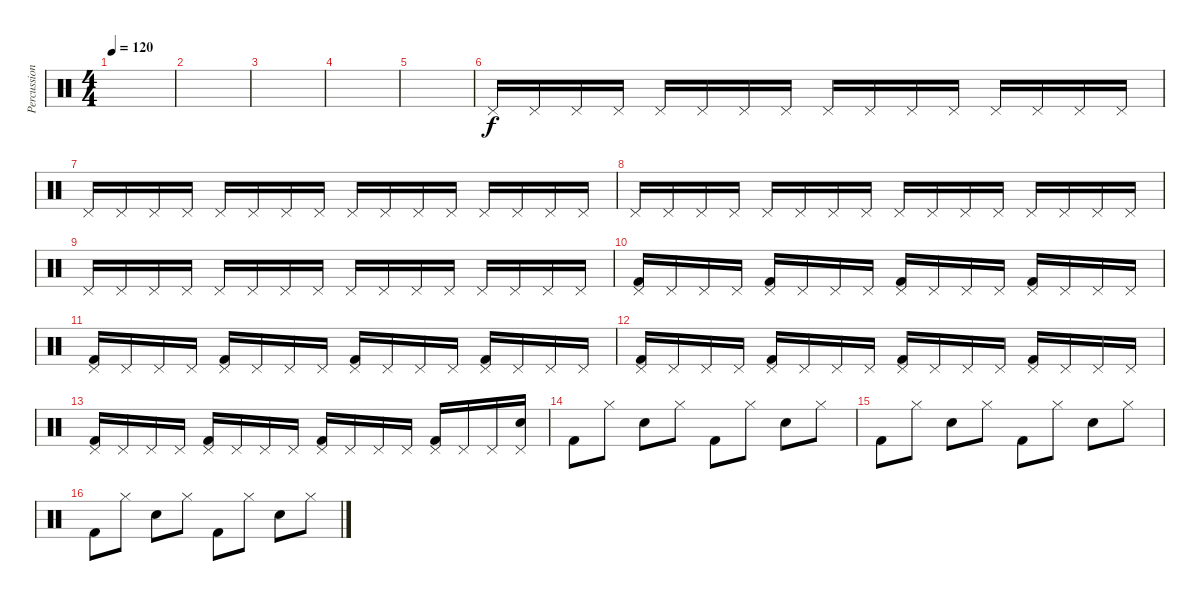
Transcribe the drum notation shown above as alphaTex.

\track ("Percussions" "Percussion") {instrument percussion}
\staff {score}
\articulation defaults
\ts (4 4)
\tempo 120
\clef neutral
\ks c
|
|
|
|
|
"Pedal Hi-Hat (hit)".16 "Pedal Hi-Hat (hit)".16 "Pedal Hi-Hat (hit)".16 "Pedal Hi-Hat (hit)".16 "Pedal Hi-Hat (hit)".16 "Pedal Hi-Hat (hit)".16 "Pedal Hi-Hat (hit)".16 "Pedal Hi-Hat (hit)".16 "Pedal Hi-Hat (hit)".16 "Pedal Hi-Hat (hit)".16 "Pedal Hi-Hat (hit)".16 "Pedal Hi-Hat (hit)".16 "Pedal Hi-Hat (hit)".16 "Pedal Hi-Hat (hit)".16 "Pedal Hi-Hat (hit)".16 "Pedal Hi-Hat (hit)".16 |
"Pedal Hi-Hat (hit)".16 "Pedal Hi-Hat (hit)".16 "Pedal Hi-Hat (hit)".16 "Pedal Hi-Hat (hit)".16 "Pedal Hi-Hat (hit)".16 "Pedal Hi-Hat (hit)".16 "Pedal Hi-Hat (hit)".16 "Pedal Hi-Hat (hit)".16 "Pedal Hi-Hat (hit)".16 "Pedal Hi-Hat (hit)".16 "Pedal Hi-Hat (hit)".16 "Pedal Hi-Hat (hit)".16 "Pedal Hi-Hat (hit)".16 "Pedal Hi-Hat (hit)".16 "Pedal Hi-Hat (hit)".16 "Pedal Hi-Hat (hit)".16 |
"Pedal Hi-Hat (hit)".16 "Pedal Hi-Hat (hit)".16 "Pedal Hi-Hat (hit)".16 "Pedal Hi-Hat (hit)".16 "Pedal Hi-Hat (hit)".16 "Pedal Hi-Hat (hit)".16 "Pedal Hi-Hat (hit)".16 "Pedal Hi-Hat (hit)".16 "Pedal Hi-Hat (hit)".16 "Pedal Hi-Hat (hit)".16 "Pedal Hi-Hat (hit)".16 "Pedal Hi-Hat (hit)".16 "Pedal Hi-Hat (hit)".16 "Pedal Hi-Hat (hit)".16 "Pedal Hi-Hat (hit)".16 "Pedal Hi-Hat (hit)".16 |
"Pedal Hi-Hat (hit)".16 "Pedal Hi-Hat (hit)".16 "Pedal Hi-Hat (hit)".16 "Pedal Hi-Hat (hit)".16 "Pedal Hi-Hat (hit)".16 "Pedal Hi-Hat (hit)".16 "Pedal Hi-Hat (hit)".16 "Pedal Hi-Hat (hit)".16 "Pedal Hi-Hat (hit)".16 "Pedal Hi-Hat (hit)".16 "Pedal Hi-Hat (hit)".16 "Pedal Hi-Hat (hit)".16 "Pedal Hi-Hat (hit)".16 "Pedal Hi-Hat (hit)".16 "Pedal Hi-Hat (hit)".16 "Pedal Hi-Hat (hit)".16 |
("Pedal Hi-Hat (hit)" "Kick (hit) 2").16 "Pedal Hi-Hat (hit)".16 "Pedal Hi-Hat (hit)".16 "Pedal Hi-Hat (hit)".16 ("Pedal Hi-Hat (hit)" "Kick (hit) 2").16 "Pedal Hi-Hat (hit)".16 "Pedal Hi-Hat (hit)".16 "Pedal Hi-Hat (hit)".16 ("Pedal Hi-Hat (hit)" "Kick (hit) 2").16 "Pedal Hi-Hat (hit)".16 "Pedal Hi-Hat (hit)".16 "Pedal Hi-Hat (hit)".16 ("Pedal Hi-Hat (hit)" "Kick (hit) 2").16 "Pedal Hi-Hat (hit)".16 "Pedal Hi-Hat (hit)".16 "Pedal Hi-Hat (hit)".16 |
("Pedal Hi-Hat (hit)" "Kick (hit) 2").16 "Pedal Hi-Hat (hit)".16 "Pedal Hi-Hat (hit)".16 "Pedal Hi-Hat (hit)".16 ("Pedal Hi-Hat (hit)" "Kick (hit) 2").16 "Pedal Hi-Hat (hit)".16 "Pedal Hi-Hat (hit)".16 "Pedal Hi-Hat (hit)".16 ("Pedal Hi-Hat (hit)" "Kick (hit) 2").16 "Pedal Hi-Hat (hit)".16 "Pedal Hi-Hat (hit)".16 "Pedal Hi-Hat (hit)".16 ("Pedal Hi-Hat (hit)" "Kick (hit) 2").16 "Pedal Hi-Hat (hit)".16 "Pedal Hi-Hat (hit)".16 "Pedal Hi-Hat (hit)".16 |
("Pedal Hi-Hat (hit)" "Kick (hit) 2").16 "Pedal Hi-Hat (hit)".16 "Pedal Hi-Hat (hit)".16 "Pedal Hi-Hat (hit)".16 ("Pedal Hi-Hat (hit)" "Kick (hit) 2").16 "Pedal Hi-Hat (hit)".16 "Pedal Hi-Hat (hit)".16 "Pedal Hi-Hat (hit)".16 ("Pedal Hi-Hat (hit)" "Kick (hit) 2").16 "Pedal Hi-Hat (hit)".16 "Pedal Hi-Hat (hit)".16 "Pedal Hi-Hat (hit)".16 ("Pedal Hi-Hat (hit)" "Kick (hit) 2").16 "Pedal Hi-Hat (hit)".16 "Pedal Hi-Hat (hit)".16 "Pedal Hi-Hat (hit)".16 |
("Pedal Hi-Hat (hit)" "Kick (hit) 2").16 "Pedal Hi-Hat (hit)".16 "Pedal Hi-Hat (hit)".16 "Pedal Hi-Hat (hit)".16 ("Pedal Hi-Hat (hit)" "Kick (hit) 2").16 "Pedal Hi-Hat (hit)".16 "Pedal Hi-Hat (hit)".16 "Pedal Hi-Hat (hit)".16 ("Pedal Hi-Hat (hit)" "Kick (hit) 2").16 "Pedal Hi-Hat (hit)".16 "Pedal Hi-Hat (hit)".16 "Pedal Hi-Hat (hit)".16 ("Pedal Hi-Hat (hit)" "Kick (hit) 2").16 "Pedal Hi-Hat (hit)".16 "Pedal Hi-Hat (hit)".16 ("Pedal Hi-Hat (hit)" "Snare (hit) 2").16 |
"Kick (hit) 2".8 "Hi-Hat (closed)".8 "Snare (hit) 2".8 "Hi-Hat (closed)".8 "Kick (hit) 2".8 "Hi-Hat (closed)".8 "Snare (hit) 2".8 "Hi-Hat (closed)".8 |
"Kick (hit) 2".8 "Hi-Hat (closed)".8 "Snare (hit) 2".8 "Hi-Hat (closed)".8 "Kick (hit) 2".8 "Hi-Hat (closed)".8 "Snare (hit) 2".8 "Hi-Hat (closed)".8 |
"Kick (hit) 2".8 "Hi-Hat (closed)".8 "Snare (hit) 2".8 "Hi-Hat (closed)".8 "Kick (hit) 2".8 "Hi-Hat (closed)".8 "Snare (hit) 2".8 "Hi-Hat (closed)".8
